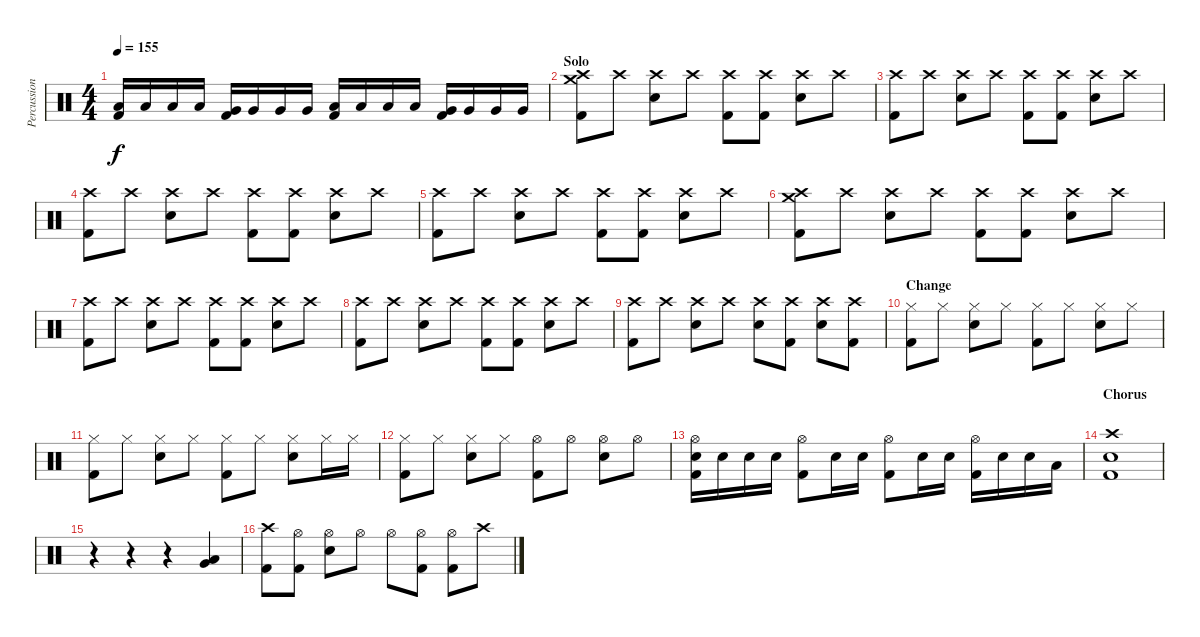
\track ("Percussion" "Percussion") {instrument percussion}
\staff {score}
\articulation defaults
\ts (4 4)
\tempo 155
\clef neutral
\ks c
("Low Tom (hit)" "Kick (hit) 2").16{dy f} "Low Tom (hit)".16 "Low Tom (hit)".16 "Low Tom (hit)".16 ("Very Low Tom (hit)" "Kick (hit) 2").16 "Very Low Tom (hit)".16 "Very Low Tom (hit)".16 "Very Low Tom (hit)".16 ("Low Tom (hit)" "Kick (hit) 2").16 "Low Tom (hit)".16 "Low Tom (hit)".16 "Low Tom (hit)".16 ("Very Low Tom (hit)" "Kick (hit) 2").16 "Very Low Tom (hit)".16 "Very Low Tom (hit)".16 "Very Low Tom (hit)".16 |
\section ("" "Solo")
("Crash high (hit)" "Kick (hit) 2" "Crash medium (hit)").8 "Crash high (hit)".8 ("Crash high (hit)" "Snare (hit) 2").8 "Crash high (hit)".8 ("Crash high (hit)" "Kick (hit) 2").8 ("Crash high (hit)" "Kick (hit) 2").8 ("Crash high (hit)" "Snare (hit) 2").8 "Crash high (hit)".8 |
("Crash high (hit)" "Kick (hit) 2").8 "Crash high (hit)".8 ("Crash high (hit)" "Snare (hit) 2").8 "Crash high (hit)".8 ("Crash high (hit)" "Kick (hit) 2").8 ("Crash high (hit)" "Kick (hit) 2").8 ("Crash high (hit)" "Snare (hit) 2").8 "Crash high (hit)".8 |
("Crash high (hit)" "Kick (hit) 2").8 "Crash high (hit)".8 ("Crash high (hit)" "Snare (hit) 2").8 "Crash high (hit)".8 ("Crash high (hit)" "Kick (hit) 2").8 ("Crash high (hit)" "Kick (hit) 2").8 ("Crash high (hit)" "Snare (hit) 2").8 "Crash high (hit)".8 |
("Crash high (hit)" "Kick (hit) 2").8 "Crash high (hit)".8 ("Crash high (hit)" "Snare (hit) 2").8 "Crash high (hit)".8 ("Crash high (hit)" "Kick (hit) 2").8 ("Crash high (hit)" "Kick (hit) 2").8 ("Crash high (hit)" "Snare (hit) 2").8 "Crash high (hit)".8 |
("Crash high (hit)" "Kick (hit) 2" "Crash medium (hit)").8 "Crash high (hit)".8 ("Crash high (hit)" "Snare (hit) 2").8 "Crash high (hit)".8 ("Crash high (hit)" "Kick (hit) 2").8 ("Crash high (hit)" "Kick (hit) 2").8 ("Crash high (hit)" "Snare (hit) 2").8 "Crash high (hit)".8 |
("Crash high (hit)" "Kick (hit) 2").8 "Crash high (hit)".8 ("Crash high (hit)" "Snare (hit) 2").8 "Crash high (hit)".8 ("Crash high (hit)" "Kick (hit) 2").8 ("Crash high (hit)" "Kick (hit) 2").8 ("Crash high (hit)" "Snare (hit) 2").8 "Crash high (hit)".8 |
("Crash high (hit)" "Kick (hit) 2").8 "Crash high (hit)".8 ("Crash high (hit)" "Snare (hit) 2").8 "Crash high (hit)".8 ("Crash high (hit)" "Kick (hit) 2").8 ("Crash high (hit)" "Kick (hit) 2").8 ("Crash high (hit)" "Snare (hit) 2").8 "Crash high (hit)".8 |
("Crash high (hit)" "Kick (hit) 2").8 "Crash high (hit)".8 ("Crash high (hit)" "Snare (hit) 2").8 "Crash high (hit)".8 ("Crash high (hit)" "Snare (hit) 2").8 ("Crash high (hit)" "Kick (hit) 2").8 ("Crash high (hit)" "Snare (hit) 2").8 ("Crash high (hit)" "Kick (hit) 2").8 |
\section ("" "Change")
("Hi-Hat (closed)" "Kick (hit) 2").8 "Hi-Hat (closed)".8 ("Hi-Hat (closed)" "Snare (hit) 2").8 "Hi-Hat (closed)".8 ("Hi-Hat (closed)" "Kick (hit) 2").8 "Hi-Hat (closed)".8 ("Hi-Hat (closed)" "Snare (hit) 2").8 "Hi-Hat (closed)".8 |
("Hi-Hat (closed)" "Kick (hit) 2").8 "Hi-Hat (closed)".8 ("Hi-Hat (closed)" "Snare (hit) 2").8 "Hi-Hat (closed)".8 ("Hi-Hat (closed)" "Kick (hit) 2").8 "Hi-Hat (closed)".8 ("Hi-Hat (closed)" "Snare (hit) 2").8 "Hi-Hat (closed)".16 "Hi-Hat (closed)".16 |
("Hi-Hat (closed)" "Kick (hit) 2").8 "Hi-Hat (closed)".8 ("Hi-Hat (closed)" "Snare (hit) 2").8 "Hi-Hat (closed)".8 ("Hi-Hat (open)" "Kick (hit) 2").8 "Hi-Hat (open)".8 ("Hi-Hat (open)" "Snare (hit) 2").8 "Hi-Hat (open)".8 |
("Hi-Hat (open)" "Snare (hit) 2" "Kick (hit) 2").16 "Snare (hit) 2".16 "Snare (hit) 2".16 "Snare (hit) 2".16 ("Hi-Hat (open)" "Kick (hit) 2").8 "Snare (hit) 2".16 "Snare (hit) 2".16 ("Hi-Hat (open)" "Kick (hit) 2").8 "Snare (hit) 2".16 "Snare (hit) 2".16 ("Hi-Hat (open)" "Kick (hit) 2").16 "Snare (hit) 2".16 "Snare (hit) 2".16 "Low Tom (hit)".16 |
\section ("" "Chorus")
("Crash high (hit)" "Snare (hit) 2" "Kick (hit) 2").1 |
r.4 r.4 r.4 ("Low Tom (hit)" "Very Low Tom (hit)").4 |
("Crash high (hit)" "Kick (hit) 2").8 ("Hi-Hat (open)" "Kick (hit) 2").8 ("Hi-Hat (open)" "Snare (hit) 2").8 "Hi-Hat (open)".8 "Hi-Hat (open)".8 ("Hi-Hat (open)" "Kick (hit) 2").8 ("Hi-Hat (open)" "Kick (hit) 2").8 "Crash high (hit)".8
